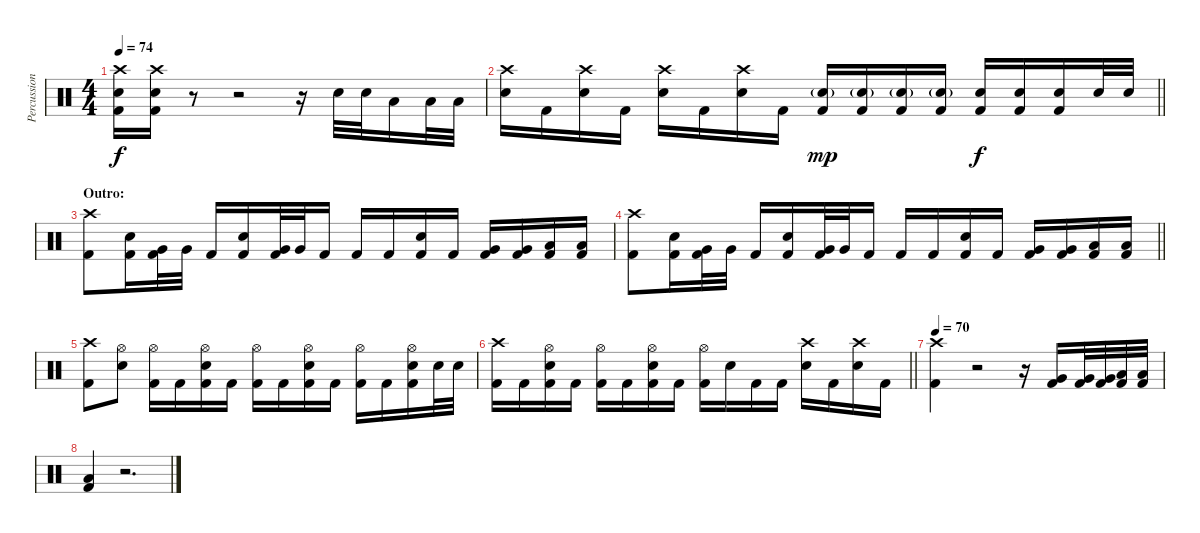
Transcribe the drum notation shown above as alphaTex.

\track ("Percussion" "Percussion") {instrument percussion}
\staff {score}
\articulation defaults
\ts (4 4)
\tempo 74
\clef neutral
\ks c
("Crash high (hit)" "Electric Snare (hit)" "Kick (hit) 2").16{dy f} ("Crash high (hit)" "Electric Snare (hit)" "Kick (hit) 2").16 r.8 r.2 r.16 "Electric Snare (hit)".32 "Electric Snare (hit)".32 "Low Tom (hit)".16 "Low Tom (hit)".32 "Low Tom (hit)".32 |
\barLineRight lightlight
("Crash high (hit)" "Electric Snare (hit)").16 "Kick (hit) 2".16 ("Crash high (hit)" "Electric Snare (hit)").16 "Kick (hit) 2".16 ("Crash high (hit)" "Electric Snare (hit)").16 "Kick (hit) 2".16 ("Crash high (hit)" "Electric Snare (hit)").16 "Kick (hit) 2".16 ("Electric Snare (hit)"{g} "Kick (hit) 2").16{dy mp} ("Electric Snare (hit)"{g} "Kick (hit) 2").16 ("Electric Snare (hit)"{g} "Kick (hit) 2").16 ("Electric Snare (hit)"{g} "Kick (hit) 2").16 ("Electric Snare (hit)" "Kick (hit) 2").16{dy f} ("Electric Snare (hit)" "Kick (hit) 2").16 ("Electric Snare (hit)" "Kick (hit) 2").16 "Electric Snare (hit)".32 "Electric Snare (hit)".32 |
\section ("" "Outro:")
("Crash high (hit)" "Kick (hit) 2").8 ("Electric Snare (hit)" "Kick (hit) 2").16 ("Very Low Tom (hit)" "Kick (hit) 2").32 "Very Low Tom (hit)".32 "Kick (hit) 2".16 ("Electric Snare (hit)" "Kick (hit) 2").16 ("Very Low Tom (hit)" "Kick (hit) 2").32 "Very Low Tom (hit)".32 "Kick (hit) 2".16 "Kick (hit) 2".16 "Kick (hit) 2".16 ("Electric Snare (hit)" "Kick (hit) 2").16 "Kick (hit) 2".16 ("Very Low Tom (hit)" "Kick (hit) 2").16 ("Very Low Tom (hit)" "Kick (hit) 2").16 ("Low Floor Tom (hit)" "Kick (hit) 2").16 ("Low Floor Tom (hit)" "Kick (hit) 2").16 |
\barLineRight lightlight
("Crash high (hit)" "Kick (hit) 2").8 ("Electric Snare (hit)" "Kick (hit) 2").16 ("Very Low Tom (hit)" "Kick (hit) 2").32 "Very Low Tom (hit)".32 "Kick (hit) 2".16 ("Electric Snare (hit)" "Kick (hit) 2").16 ("Very Low Tom (hit)" "Kick (hit) 2").32 "Very Low Tom (hit)".32 "Kick (hit) 2".16 "Kick (hit) 2".16 "Kick (hit) 2".16 ("Electric Snare (hit)" "Kick (hit) 2").16 "Kick (hit) 2".16 ("Very Low Tom (hit)" "Kick (hit) 2").16 ("Very Low Tom (hit)" "Kick (hit) 2").16 ("Low Floor Tom (hit)" "Kick (hit) 2").16 ("Low Floor Tom (hit)" "Kick (hit) 2").16 |
("Crash high (hit)" "Kick (hit) 2").8 ("Hi-Hat (open)" "Electric Snare (hit)").8 ("Hi-Hat (open)" "Kick (hit) 2").16 "Kick (hit) 2".16 ("Hi-Hat (open)" "Electric Snare (hit)" "Kick (hit) 2").16 "Kick (hit) 2".16 ("Hi-Hat (open)" "Kick (hit) 2").16 "Kick (hit) 2".16 ("Hi-Hat (open)" "Electric Snare (hit)" "Kick (hit) 2").16 "Kick (hit) 2".16 ("Hi-Hat (open)" "Kick (hit) 2").16 "Kick (hit) 2".16 ("Hi-Hat (open)" "Electric Snare (hit)" "Kick (hit) 2").16 "Electric Snare (hit)".32 "Electric Snare (hit)".32 |
\barLineRight lightlight
("Crash high (hit)" "Kick (hit) 2").16 "Kick (hit) 2".16 ("Hi-Hat (open)" "Electric Snare (hit)" "Kick (hit) 2").16 "Kick (hit) 2".16 ("Hi-Hat (open)" "Kick (hit) 2").16 "Kick (hit) 2".16 ("Hi-Hat (open)" "Electric Snare (hit)" "Kick (hit) 2").16 "Kick (hit) 2".16 ("Hi-Hat (open)" "Kick (hit) 2").16 "Electric Snare (hit)".16 "Kick (hit) 2".16 "Kick (hit) 2".16 ("Crash high (hit)" "Electric Snare (hit)").16 "Kick (hit) 2".16 ("Crash high (hit)" "Electric Snare (hit)").16 "Kick (hit) 2".16 |
\tempo 70
("Crash high (hit)" "Kick (hit) 2").4 r.2 r.16 ("Very Low Tom (hit)" "Kick (hit) 2").16 ("Very Low Tom (hit)" "Kick (hit) 2").32 ("Very Low Tom (hit)" "Kick (hit) 2").32 ("Low Floor Tom (hit)" "Kick (hit) 2").32 ("Low Floor Tom (hit)" "Kick (hit) 2").32 |
("Low Floor Tom (hit)" "Kick (hit) 2").4 r.2{d}
